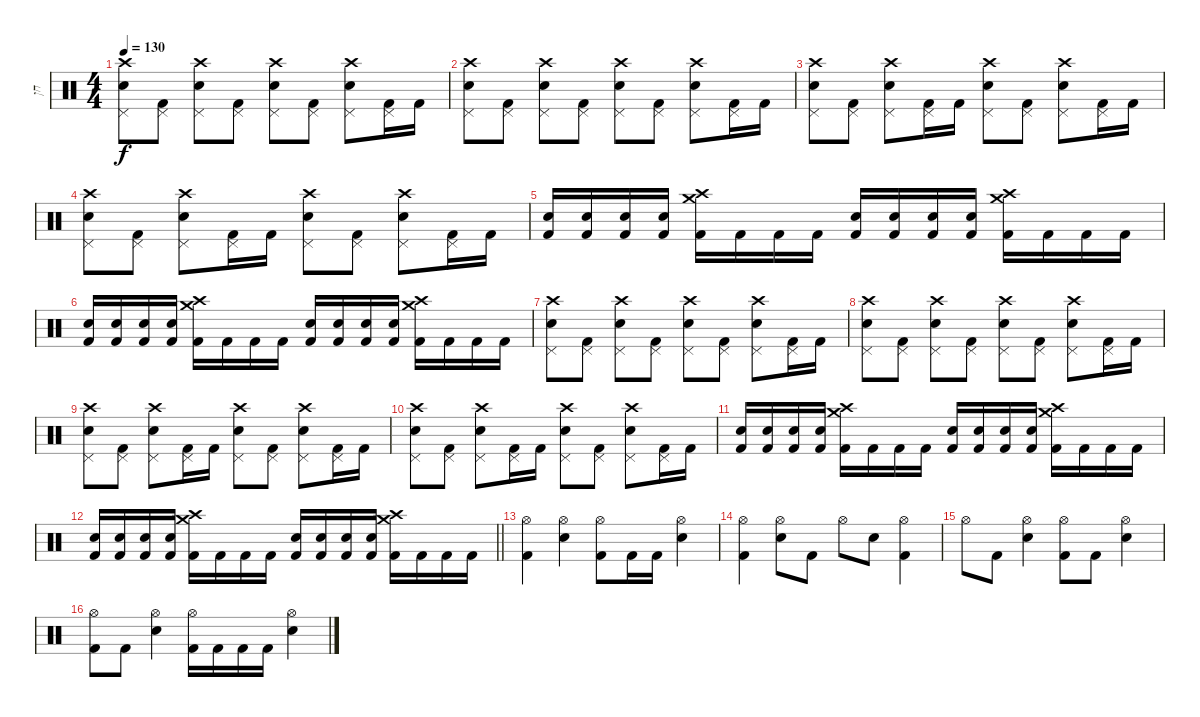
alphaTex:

\track ("חן" "חן") {instrument percussion}
\staff {score}
\articulation defaults
\ts (4 4)
\tempo 130
\clef neutral
\ks c
("Crash high (hit)" "Electric Snare (hit)" "Pedal Hi-Hat (hit)").8{dy f} ("Pedal Hi-Hat (hit)" "Kick (hit) 2").8 ("Crash high (hit)" "Electric Snare (hit)" "Pedal Hi-Hat (hit)").8 ("Pedal Hi-Hat (hit)" "Kick (hit) 2").8 ("Crash high (hit)" "Electric Snare (hit)" "Pedal Hi-Hat (hit)").8 ("Pedal Hi-Hat (hit)" "Kick (hit) 2").8 ("Crash high (hit)" "Electric Snare (hit)" "Pedal Hi-Hat (hit)").8 ("Pedal Hi-Hat (hit)" "Kick (hit) 2").16 "Kick (hit) 2".16 |
("Crash high (hit)" "Electric Snare (hit)" "Pedal Hi-Hat (hit)").8 ("Pedal Hi-Hat (hit)" "Kick (hit) 2").8 ("Crash high (hit)" "Electric Snare (hit)" "Pedal Hi-Hat (hit)").8 ("Pedal Hi-Hat (hit)" "Kick (hit) 2").8 ("Crash high (hit)" "Electric Snare (hit)" "Pedal Hi-Hat (hit)").8 ("Pedal Hi-Hat (hit)" "Kick (hit) 2").8 ("Crash high (hit)" "Electric Snare (hit)" "Pedal Hi-Hat (hit)").8 ("Pedal Hi-Hat (hit)" "Kick (hit) 2").16 "Kick (hit) 2".16 |
("Crash high (hit)" "Electric Snare (hit)" "Pedal Hi-Hat (hit)").8 ("Pedal Hi-Hat (hit)" "Kick (hit) 2").8 ("Crash high (hit)" "Electric Snare (hit)" "Pedal Hi-Hat (hit)").8 ("Pedal Hi-Hat (hit)" "Kick (hit) 2").16 "Kick (hit) 2".16 ("Crash high (hit)" "Electric Snare (hit)" "Pedal Hi-Hat (hit)").8 ("Pedal Hi-Hat (hit)" "Kick (hit) 2").8 ("Crash high (hit)" "Electric Snare (hit)" "Pedal Hi-Hat (hit)").8 ("Pedal Hi-Hat (hit)" "Kick (hit) 2").16 "Kick (hit) 2".16 |
("Crash high (hit)" "Electric Snare (hit)" "Pedal Hi-Hat (hit)").8 ("Pedal Hi-Hat (hit)" "Kick (hit) 2").8 ("Crash high (hit)" "Electric Snare (hit)" "Pedal Hi-Hat (hit)").8 ("Pedal Hi-Hat (hit)" "Kick (hit) 2").16 "Kick (hit) 2".16 ("Crash high (hit)" "Electric Snare (hit)" "Pedal Hi-Hat (hit)").8 ("Pedal Hi-Hat (hit)" "Kick (hit) 2").8 ("Crash high (hit)" "Electric Snare (hit)" "Pedal Hi-Hat (hit)").8 ("Pedal Hi-Hat (hit)" "Kick (hit) 2").16 "Kick (hit) 2".16 |
("Electric Snare (hit)" "Kick (hit) 2").16 ("Electric Snare (hit)" "Kick (hit) 2").16 ("Electric Snare (hit)" "Kick (hit) 2").16 ("Electric Snare (hit)" "Kick (hit) 2").16 ("Crash high (hit)" "Crash medium (hit)" "Kick (hit) 2").16 "Kick (hit) 2".16 "Kick (hit) 2".16 "Kick (hit) 2".16 ("Electric Snare (hit)" "Kick (hit) 2").16 ("Electric Snare (hit)" "Kick (hit) 2").16 ("Electric Snare (hit)" "Kick (hit) 2").16 ("Electric Snare (hit)" "Kick (hit) 2").16 ("Crash high (hit)" "Crash medium (hit)" "Kick (hit) 2").16 "Kick (hit) 2".16 "Kick (hit) 2".16 "Kick (hit) 2".16 |
("Electric Snare (hit)" "Kick (hit) 2").16 ("Electric Snare (hit)" "Kick (hit) 2").16 ("Electric Snare (hit)" "Kick (hit) 2").16 ("Electric Snare (hit)" "Kick (hit) 2").16 ("Crash high (hit)" "Crash medium (hit)" "Kick (hit) 2").16 "Kick (hit) 2".16 "Kick (hit) 2".16 "Kick (hit) 2".16 ("Electric Snare (hit)" "Kick (hit) 2").16 ("Electric Snare (hit)" "Kick (hit) 2").16 ("Electric Snare (hit)" "Kick (hit) 2").16 ("Electric Snare (hit)" "Kick (hit) 2").16 ("Crash high (hit)" "Crash medium (hit)" "Kick (hit) 2").16 "Kick (hit) 2".16 "Kick (hit) 2".16 "Kick (hit) 2".16 |
("Crash high (hit)" "Electric Snare (hit)" "Pedal Hi-Hat (hit)").8 ("Pedal Hi-Hat (hit)" "Kick (hit) 2").8 ("Crash high (hit)" "Electric Snare (hit)" "Pedal Hi-Hat (hit)").8 ("Pedal Hi-Hat (hit)" "Kick (hit) 2").8 ("Crash high (hit)" "Electric Snare (hit)" "Pedal Hi-Hat (hit)").8 ("Pedal Hi-Hat (hit)" "Kick (hit) 2").8 ("Crash high (hit)" "Electric Snare (hit)" "Pedal Hi-Hat (hit)").8 ("Pedal Hi-Hat (hit)" "Kick (hit) 2").16 "Kick (hit) 2".16 |
("Crash high (hit)" "Electric Snare (hit)" "Pedal Hi-Hat (hit)").8 ("Pedal Hi-Hat (hit)" "Kick (hit) 2").8 ("Crash high (hit)" "Electric Snare (hit)" "Pedal Hi-Hat (hit)").8 ("Pedal Hi-Hat (hit)" "Kick (hit) 2").8 ("Crash high (hit)" "Electric Snare (hit)" "Pedal Hi-Hat (hit)").8 ("Pedal Hi-Hat (hit)" "Kick (hit) 2").8 ("Crash high (hit)" "Electric Snare (hit)" "Pedal Hi-Hat (hit)").8 ("Pedal Hi-Hat (hit)" "Kick (hit) 2").16 "Kick (hit) 2".16 |
("Crash high (hit)" "Electric Snare (hit)" "Pedal Hi-Hat (hit)").8 ("Pedal Hi-Hat (hit)" "Kick (hit) 2").8 ("Crash high (hit)" "Electric Snare (hit)" "Pedal Hi-Hat (hit)").8 ("Pedal Hi-Hat (hit)" "Kick (hit) 2").16 "Kick (hit) 2".16 ("Crash high (hit)" "Electric Snare (hit)" "Pedal Hi-Hat (hit)").8 ("Pedal Hi-Hat (hit)" "Kick (hit) 2").8 ("Crash high (hit)" "Electric Snare (hit)" "Pedal Hi-Hat (hit)").8 ("Pedal Hi-Hat (hit)" "Kick (hit) 2").16 "Kick (hit) 2".16 |
("Crash high (hit)" "Electric Snare (hit)" "Pedal Hi-Hat (hit)").8 ("Pedal Hi-Hat (hit)" "Kick (hit) 2").8 ("Crash high (hit)" "Electric Snare (hit)" "Pedal Hi-Hat (hit)").8 ("Pedal Hi-Hat (hit)" "Kick (hit) 2").16 "Kick (hit) 2".16 ("Crash high (hit)" "Electric Snare (hit)" "Pedal Hi-Hat (hit)").8 ("Pedal Hi-Hat (hit)" "Kick (hit) 2").8 ("Crash high (hit)" "Electric Snare (hit)" "Pedal Hi-Hat (hit)").8 ("Pedal Hi-Hat (hit)" "Kick (hit) 2").16 "Kick (hit) 2".16 |
("Electric Snare (hit)" "Kick (hit) 2").16 ("Electric Snare (hit)" "Kick (hit) 2").16 ("Electric Snare (hit)" "Kick (hit) 2").16 ("Electric Snare (hit)" "Kick (hit) 2").16 ("Crash high (hit)" "Crash medium (hit)" "Kick (hit) 2").16 "Kick (hit) 2".16 "Kick (hit) 2".16 "Kick (hit) 2".16 ("Electric Snare (hit)" "Kick (hit) 2").16 ("Electric Snare (hit)" "Kick (hit) 2").16 ("Electric Snare (hit)" "Kick (hit) 2").16 ("Electric Snare (hit)" "Kick (hit) 2").16 ("Crash high (hit)" "Crash medium (hit)" "Kick (hit) 2").16 "Kick (hit) 2".16 "Kick (hit) 2".16 "Kick (hit) 2".16 |
\barLineRight lightlight
("Electric Snare (hit)" "Kick (hit) 2").16 ("Electric Snare (hit)" "Kick (hit) 2").16 ("Electric Snare (hit)" "Kick (hit) 2").16 ("Electric Snare (hit)" "Kick (hit) 2").16 ("Crash high (hit)" "Crash medium (hit)" "Kick (hit) 2").16 "Kick (hit) 2".16 "Kick (hit) 2".16 "Kick (hit) 2".16 ("Electric Snare (hit)" "Kick (hit) 2").16 ("Electric Snare (hit)" "Kick (hit) 2").16 ("Electric Snare (hit)" "Kick (hit) 2").16 ("Electric Snare (hit)" "Kick (hit) 2").16 ("Crash high (hit)" "Crash medium (hit)" "Kick (hit) 2").16 "Kick (hit) 2".16 "Kick (hit) 2".16 "Kick (hit) 2".16 |
("Hi-Hat (open)" "Kick (hit) 2").4 ("Hi-Hat (open)" "Electric Snare (hit)").4 ("Hi-Hat (open)" "Kick (hit) 2").8 "Kick (hit) 2".16 "Kick (hit) 2".16 ("Hi-Hat (open)" "Electric Snare (hit)").4 |
("Hi-Hat (open)" "Kick (hit) 2").4 ("Hi-Hat (open)" "Electric Snare (hit)").8 "Kick (hit) 2".8 "Hi-Hat (open)".8 "Electric Snare (hit)".8 ("Hi-Hat (open)" "Kick (hit) 2").4 |
"Hi-Hat (open)".8 "Kick (hit) 2".8 ("Hi-Hat (open)" "Electric Snare (hit)").4 ("Hi-Hat (open)" "Kick (hit) 2").8 "Kick (hit) 2".8 ("Hi-Hat (open)" "Electric Snare (hit)").4 |
("Hi-Hat (open)" "Kick (hit) 2").8 "Kick (hit) 2".8 ("Hi-Hat (open)" "Electric Snare (hit)").4 ("Hi-Hat (open)" "Kick (hit) 2").16 "Kick (hit) 2".16 "Kick (hit) 2".16 "Kick (hit) 2".16 ("Hi-Hat (open)" "Electric Snare (hit)").4
